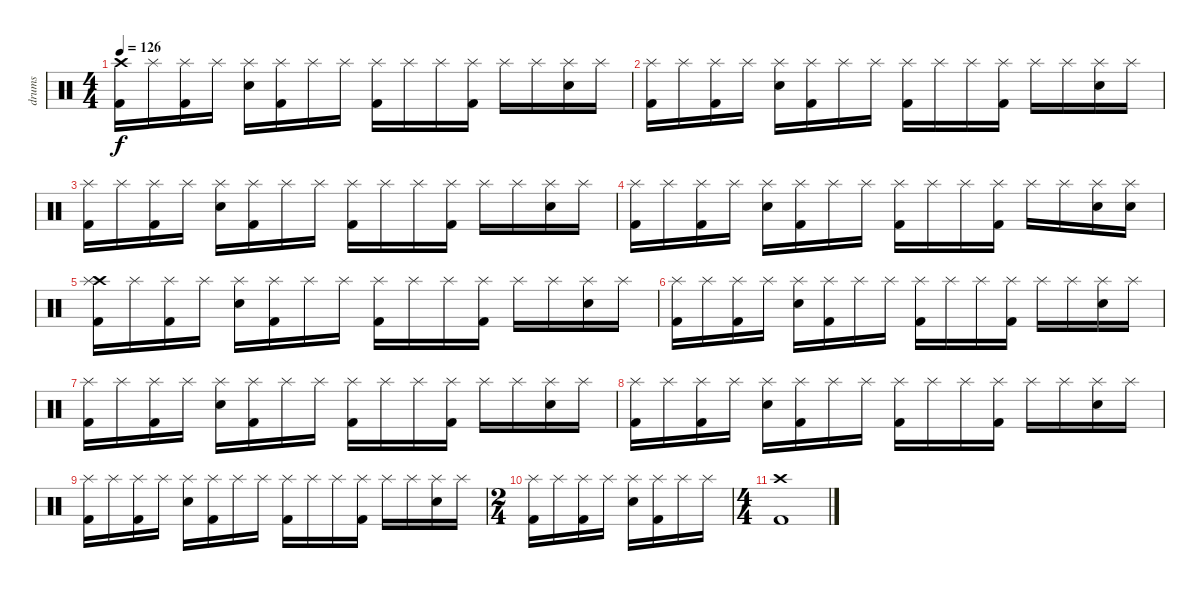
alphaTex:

\track ("drums" "drums") {instrument percussion}
\staff {score}
\articulation defaults
\ts (4 4)
\tempo 126
\clef neutral
\ks c
("Crash high (hit)" "Kick (hit) 2").16{dy f} "Splash (hit)".16 ("Splash (hit)" "Kick (hit) 2").16 "Splash (hit)".16 ("Splash (hit)" "Snare (hit) 2").16 ("Splash (hit)" "Kick (hit) 2").16 "Splash (hit)".16 "Splash (hit)".16 ("Splash (hit)" "Kick (hit) 2").16 "Splash (hit)".16 "Splash (hit)".16 ("Splash (hit)" "Kick (hit) 2").16 "Splash (hit)".16 "Splash (hit)".16 ("Splash (hit)" "Snare (hit) 2").16 "Splash (hit)".16 |
("Splash (hit)" "Kick (hit) 2").16 "Splash (hit)".16 ("Splash (hit)" "Kick (hit) 2").16 "Splash (hit)".16 ("Splash (hit)" "Snare (hit) 2").16 ("Splash (hit)" "Kick (hit) 2").16 "Splash (hit)".16 "Splash (hit)".16 ("Splash (hit)" "Kick (hit) 2").16 "Splash (hit)".16 "Splash (hit)".16 ("Splash (hit)" "Kick (hit) 2").16 "Splash (hit)".16 "Splash (hit)".16 ("Splash (hit)" "Snare (hit) 2").16 "Splash (hit)".16 |
("Splash (hit)" "Kick (hit) 2").16 "Splash (hit)".16 ("Splash (hit)" "Kick (hit) 2").16 "Splash (hit)".16 ("Splash (hit)" "Snare (hit) 2").16 ("Splash (hit)" "Kick (hit) 2").16 "Splash (hit)".16 "Splash (hit)".16 ("Splash (hit)" "Kick (hit) 2").16 "Splash (hit)".16 "Splash (hit)".16 ("Splash (hit)" "Kick (hit) 2").16 "Splash (hit)".16 "Splash (hit)".16 ("Splash (hit)" "Snare (hit) 2").16 "Splash (hit)".16 |
("Splash (hit)" "Kick (hit) 2").16 "Splash (hit)".16 ("Splash (hit)" "Kick (hit) 2").16 "Splash (hit)".16 ("Splash (hit)" "Snare (hit) 2").16 ("Splash (hit)" "Kick (hit) 2").16 "Splash (hit)".16 "Splash (hit)".16 ("Splash (hit)" "Kick (hit) 2").16 "Splash (hit)".16 "Splash (hit)".16 ("Splash (hit)" "Kick (hit) 2").16 "Splash (hit)".16 "Splash (hit)".16 ("Splash (hit)" "Snare (hit) 2").16 ("Splash (hit)" "Snare (hit) 2").16 |
("Crash high (hit)" "Splash (hit)" "Kick (hit) 2").16 "Splash (hit)".16 ("Splash (hit)" "Kick (hit) 2").16 "Splash (hit)".16 ("Splash (hit)" "Snare (hit) 2").16 ("Splash (hit)" "Kick (hit) 2").16 "Splash (hit)".16 "Splash (hit)".16 ("Splash (hit)" "Kick (hit) 2").16 "Splash (hit)".16 "Splash (hit)".16 ("Splash (hit)" "Kick (hit) 2").16 "Splash (hit)".16 "Splash (hit)".16 ("Splash (hit)" "Snare (hit) 2").16 "Splash (hit)".16 |
("Splash (hit)" "Kick (hit) 2").16 "Splash (hit)".16 ("Splash (hit)" "Kick (hit) 2").16 "Splash (hit)".16 ("Splash (hit)" "Snare (hit) 2").16 ("Splash (hit)" "Kick (hit) 2").16 "Splash (hit)".16 "Splash (hit)".16 ("Splash (hit)" "Kick (hit) 2").16 "Splash (hit)".16 "Splash (hit)".16 ("Splash (hit)" "Kick (hit) 2").16 "Splash (hit)".16 "Splash (hit)".16 ("Splash (hit)" "Snare (hit) 2").16 "Splash (hit)".16 |
("Splash (hit)" "Kick (hit) 2").16 "Splash (hit)".16 ("Splash (hit)" "Kick (hit) 2").16 "Splash (hit)".16 ("Splash (hit)" "Snare (hit) 2").16 ("Splash (hit)" "Kick (hit) 2").16 "Splash (hit)".16 "Splash (hit)".16 ("Splash (hit)" "Kick (hit) 2").16 "Splash (hit)".16 "Splash (hit)".16 ("Splash (hit)" "Kick (hit) 2").16 "Splash (hit)".16 "Splash (hit)".16 ("Splash (hit)" "Snare (hit) 2").16 "Splash (hit)".16 |
("Splash (hit)" "Kick (hit) 2").16 "Splash (hit)".16 ("Splash (hit)" "Kick (hit) 2").16 "Splash (hit)".16 ("Splash (hit)" "Snare (hit) 2").16 ("Splash (hit)" "Kick (hit) 2").16 "Splash (hit)".16 "Splash (hit)".16 ("Splash (hit)" "Kick (hit) 2").16 "Splash (hit)".16 "Splash (hit)".16 ("Splash (hit)" "Kick (hit) 2").16 "Splash (hit)".16 "Splash (hit)".16 ("Splash (hit)" "Snare (hit) 2").16 "Splash (hit)".16 |
("Splash (hit)" "Kick (hit) 2").16 "Splash (hit)".16 ("Splash (hit)" "Kick (hit) 2").16 "Splash (hit)".16 ("Splash (hit)" "Snare (hit) 2").16 ("Splash (hit)" "Kick (hit) 2").16 "Splash (hit)".16 "Splash (hit)".16 ("Splash (hit)" "Kick (hit) 2").16 "Splash (hit)".16 "Splash (hit)".16 ("Splash (hit)" "Kick (hit) 2").16 "Splash (hit)".16 "Splash (hit)".16 ("Splash (hit)" "Snare (hit) 2").16 "Splash (hit)".16 |
\ts (2 4)
("Splash (hit)" "Kick (hit) 2").16 "Splash (hit)".16 ("Splash (hit)" "Kick (hit) 2").16 "Splash (hit)".16 ("Splash (hit)" "Snare (hit) 2").16 ("Splash (hit)" "Kick (hit) 2").16 "Splash (hit)".16 "Splash (hit)".16 |
\ts (4 4)
("Kick (hit) 2" "Crash high (hit)").1
